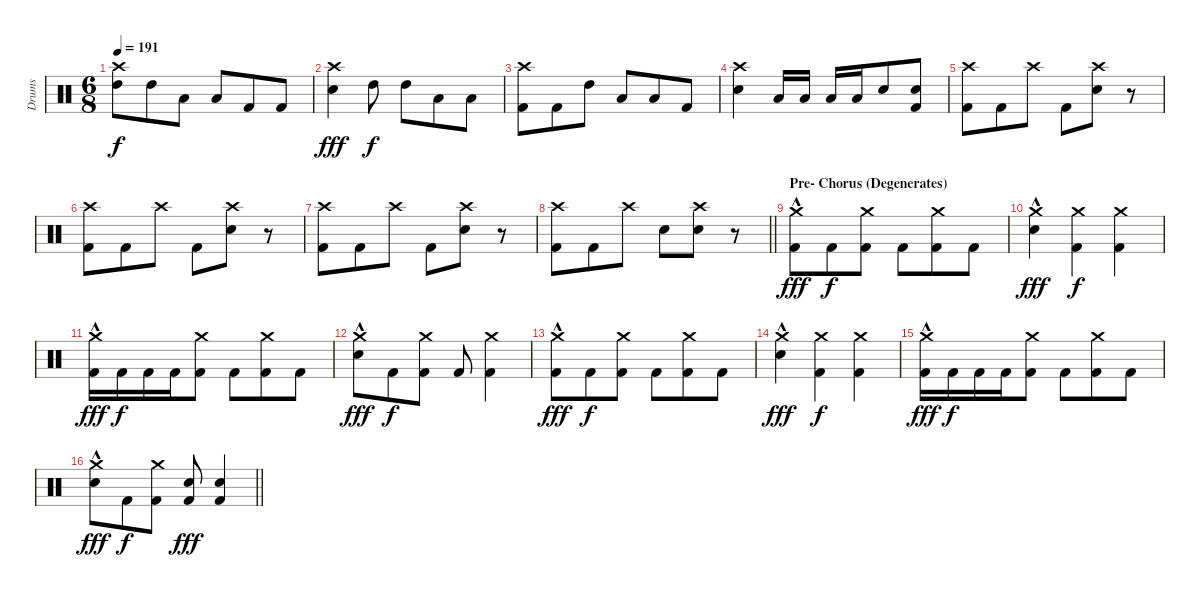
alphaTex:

\track ("Drums" "Drums") {instrument percussion}
\staff {score}
\articulation defaults
\ts (6 8)
\tempo 191
\clef neutral
\ks c
("Crash high (hit)" "High Tom (hit)").8{dy f} "High Tom (hit)".8 "Low Tom (hit)".8 "Low Floor Tom (hit)".8 "Kick (hit) 2".8 "Kick (hit) 2".8 |
("Crash high (hit)" "Snare (hit) 2").4{dy fff} "High Tom (hit)".8{dy f} "High Tom (hit)".8 "Low Tom (hit)".8 "Low Tom (hit)".8 |
("Crash high (hit)" "Kick (hit) 2").8 "Kick (hit) 2".8 "High Tom (hit)".8 "Low Tom (hit)".8 "Low Floor Tom (hit)".8 "Kick (hit) 2".8 |
("Crash high (hit)" "Snare (hit) 2").4 "Low Tom (hit)".16 "Low Tom (hit)".16 "Low Floor Tom (hit)".16 "Low Floor Tom (hit)".16 "Snare (hit) 2".8 ("Snare (hit) 2" "Kick (hit) 2").8 |
("Crash high (hit)" "Kick (hit) 2").8 "Kick (hit) 2".8 "Crash high (hit)".8 "Kick (hit) 2".8 ("Crash high (hit)" "Snare (hit) 2").8 r.8 |
("Crash high (hit)" "Kick (hit) 2").8 "Kick (hit) 2".8 "Crash high (hit)".8 "Kick (hit) 2".8 ("Crash high (hit)" "Snare (hit) 2").8 r.8 |
("Crash high (hit)" "Kick (hit) 2").8 "Kick (hit) 2".8 "Crash high (hit)".8 "Kick (hit) 2".8 ("Crash high (hit)" "Snare (hit) 2").8 r.8 |
\barLineRight lightlight
("Crash high (hit)" "Kick (hit) 2").8 "Kick (hit) 2".8 "Crash high (hit)".8 "Snare (hit) 2".8 ("Crash high (hit)" "Snare (hit) 2").8 r.8 |
\section ("" "Pre- Chorus (Degenerates)")
("Crash medium (hit)"{hac} "Kick (hit) 2").8{dy fff} "Kick (hit) 2".8{dy f} ("Crash medium (hit)" "Kick (hit) 2").8 "Kick (hit) 2".8 ("Crash medium (hit)" "Kick (hit) 2").8 "Kick (hit) 2".8 |
("Crash medium (hit)"{hac} "Snare (hit) 2").4{dy fff} ("Crash medium (hit)" "Kick (hit) 2").4{dy f} ("Crash medium (hit)" "Kick (hit) 2").4 |
("Crash medium (hit)"{hac} "Kick (hit) 2").16{dy fff} "Kick (hit) 2".16{dy f} "Kick (hit) 2".16 "Kick (hit) 2".16 ("Crash medium (hit)" "Kick (hit) 2").8 "Kick (hit) 2".8 ("Crash medium (hit)" "Kick (hit) 2").8 "Kick (hit) 2".8 |
("Crash medium (hit)"{hac} "Snare (hit) 2").8{dy fff} "Kick (hit) 2".8{dy f} ("Crash medium (hit)" "Kick (hit) 2").8 "Kick (hit) 2".8 ("Crash medium (hit)" "Kick (hit) 2").4 |
("Crash medium (hit)"{hac} "Kick (hit) 2").8{dy fff} "Kick (hit) 2".8{dy f} ("Crash medium (hit)" "Kick (hit) 2").8 "Kick (hit) 2".8 ("Crash medium (hit)" "Kick (hit) 2").8 "Kick (hit) 2".8 |
("Crash medium (hit)"{hac} "Snare (hit) 2").4{dy fff} ("Crash medium (hit)" "Kick (hit) 2").4{dy f} ("Crash medium (hit)" "Kick (hit) 2").4 |
("Crash medium (hit)"{hac} "Kick (hit) 2").16{dy fff} "Kick (hit) 2".16{dy f} "Kick (hit) 2".16 "Kick (hit) 2".16 ("Crash medium (hit)" "Kick (hit) 2").8 "Kick (hit) 2".8 ("Crash medium (hit)" "Kick (hit) 2").8 "Kick (hit) 2".8 |
\barLineRight lightlight
("Crash medium (hit)"{hac} "Snare (hit) 2").8{dy fff} "Kick (hit) 2".8{dy f} ("Crash medium (hit)" "Kick (hit) 2").8 ("Snare (hit) 2" "Kick (hit) 2").8{dy fff} ("Snare (hit) 2" "Kick (hit) 2").4
